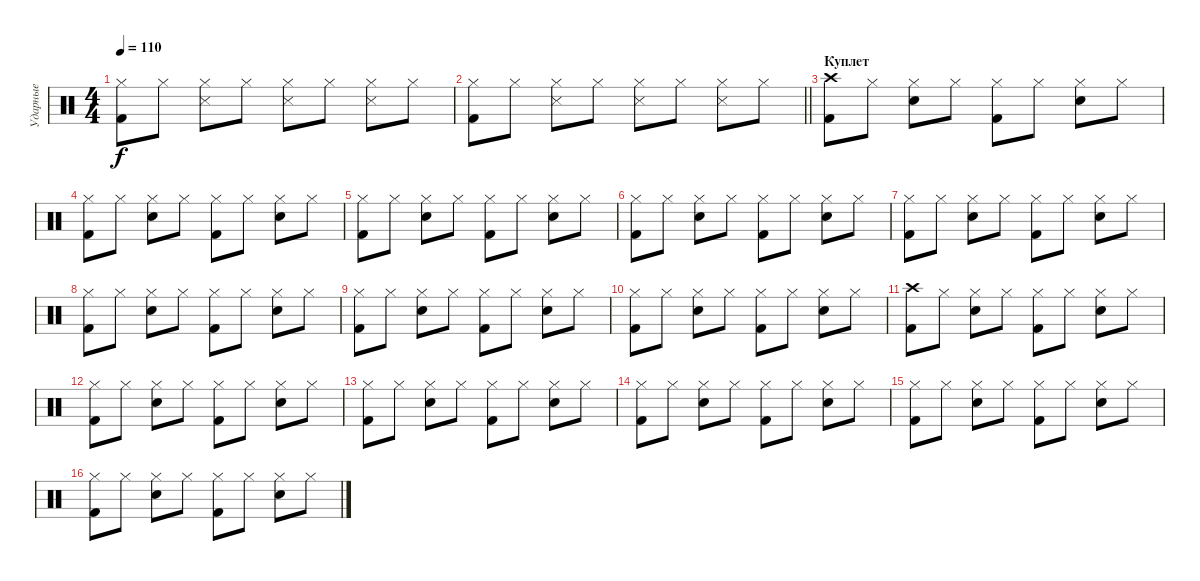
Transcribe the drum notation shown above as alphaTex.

\track ("Ударные" "Ударные") {instrument percussion}
\staff {score}
\articulation defaults
\ts (4 4)
\tempo 110
\clef neutral
\ks c
("Kick (hit) 2" "Hi-Hat (closed)").8{dy f} "Hi-Hat (closed)".8 ("Snare (side stick) 3" "Hi-Hat (closed)").8 "Hi-Hat (closed)".8 ("Snare (side stick) 3" "Hi-Hat (closed)").8 "Hi-Hat (closed)".8 ("Snare (side stick) 3" "Hi-Hat (closed)").8 "Hi-Hat (closed)".8 |
\barLineRight lightlight
("Kick (hit) 2" "Hi-Hat (closed)").8 "Hi-Hat (closed)".8 ("Snare (side stick) 3" "Hi-Hat (closed)").8 "Hi-Hat (closed)".8 ("Snare (side stick) 3" "Hi-Hat (closed)").8 "Hi-Hat (closed)".8 ("Snare (side stick) 3" "Hi-Hat (closed)").8 "Hi-Hat (closed)".8 |
\section ("" "Куплет")
("Kick (hit) 2" "Crash high (hit)").8 "Hi-Hat (closed)".8 ("Snare (hit) 2" "Hi-Hat (closed)").8 "Hi-Hat (closed)".8 ("Kick (hit) 2" "Hi-Hat (closed)").8 "Hi-Hat (closed)".8 ("Snare (hit) 2" "Hi-Hat (closed)").8 "Hi-Hat (closed)".8 |
("Kick (hit) 2" "Hi-Hat (closed)").8 "Hi-Hat (closed)".8 ("Snare (hit) 2" "Hi-Hat (closed)").8 "Hi-Hat (closed)".8 ("Kick (hit) 2" "Hi-Hat (closed)").8 "Hi-Hat (closed)".8 ("Snare (hit) 2" "Hi-Hat (closed)").8 "Hi-Hat (closed)".8 |
("Kick (hit) 2" "Hi-Hat (closed)").8 "Hi-Hat (closed)".8 ("Snare (hit) 2" "Hi-Hat (closed)").8 "Hi-Hat (closed)".8 ("Kick (hit) 2" "Hi-Hat (closed)").8 "Hi-Hat (closed)".8 ("Snare (hit) 2" "Hi-Hat (closed)").8 "Hi-Hat (closed)".8 |
("Kick (hit) 2" "Hi-Hat (closed)").8 "Hi-Hat (closed)".8 ("Snare (hit) 2" "Hi-Hat (closed)").8 "Hi-Hat (closed)".8 ("Kick (hit) 2" "Hi-Hat (closed)").8 "Hi-Hat (closed)".8 ("Snare (hit) 2" "Hi-Hat (closed)").8 "Hi-Hat (closed)".8 |
("Kick (hit) 2" "Hi-Hat (closed)").8 "Hi-Hat (closed)".8 ("Snare (hit) 2" "Hi-Hat (closed)").8 "Hi-Hat (closed)".8 ("Kick (hit) 2" "Hi-Hat (closed)").8 "Hi-Hat (closed)".8 ("Snare (hit) 2" "Hi-Hat (closed)").8 "Hi-Hat (closed)".8 |
("Kick (hit) 2" "Hi-Hat (closed)").8 "Hi-Hat (closed)".8 ("Snare (hit) 2" "Hi-Hat (closed)").8 "Hi-Hat (closed)".8 ("Kick (hit) 2" "Hi-Hat (closed)").8 "Hi-Hat (closed)".8 ("Snare (hit) 2" "Hi-Hat (closed)").8 "Hi-Hat (closed)".8 |
("Kick (hit) 2" "Hi-Hat (closed)").8 "Hi-Hat (closed)".8 ("Snare (hit) 2" "Hi-Hat (closed)").8 "Hi-Hat (closed)".8 ("Kick (hit) 2" "Hi-Hat (closed)").8 "Hi-Hat (closed)".8 ("Snare (hit) 2" "Hi-Hat (closed)").8 "Hi-Hat (closed)".8 |
("Kick (hit) 2" "Hi-Hat (closed)").8 "Hi-Hat (closed)".8 ("Snare (hit) 2" "Hi-Hat (closed)").8 "Hi-Hat (closed)".8 ("Kick (hit) 2" "Hi-Hat (closed)").8 "Hi-Hat (closed)".8 ("Snare (hit) 2" "Hi-Hat (closed)").8 "Hi-Hat (closed)".8 |
("Kick (hit) 2" "Crash high (hit)").8 "Hi-Hat (closed)".8 ("Snare (hit) 2" "Hi-Hat (closed)").8 "Hi-Hat (closed)".8 ("Kick (hit) 2" "Hi-Hat (closed)").8 "Hi-Hat (closed)".8 ("Snare (hit) 2" "Hi-Hat (closed)").8 "Hi-Hat (closed)".8 |
("Kick (hit) 2" "Hi-Hat (closed)").8 "Hi-Hat (closed)".8 ("Snare (hit) 2" "Hi-Hat (closed)").8 "Hi-Hat (closed)".8 ("Kick (hit) 2" "Hi-Hat (closed)").8 "Hi-Hat (closed)".8 ("Snare (hit) 2" "Hi-Hat (closed)").8 "Hi-Hat (closed)".8 |
("Kick (hit) 2" "Hi-Hat (closed)").8 "Hi-Hat (closed)".8 ("Snare (hit) 2" "Hi-Hat (closed)").8 "Hi-Hat (closed)".8 ("Kick (hit) 2" "Hi-Hat (closed)").8 "Hi-Hat (closed)".8 ("Snare (hit) 2" "Hi-Hat (closed)").8 "Hi-Hat (closed)".8 |
("Kick (hit) 2" "Hi-Hat (closed)").8 "Hi-Hat (closed)".8 ("Snare (hit) 2" "Hi-Hat (closed)").8 "Hi-Hat (closed)".8 ("Kick (hit) 2" "Hi-Hat (closed)").8 "Hi-Hat (closed)".8 ("Snare (hit) 2" "Hi-Hat (closed)").8 "Hi-Hat (closed)".8 |
("Kick (hit) 2" "Hi-Hat (closed)").8 "Hi-Hat (closed)".8 ("Snare (hit) 2" "Hi-Hat (closed)").8 "Hi-Hat (closed)".8 ("Kick (hit) 2" "Hi-Hat (closed)").8 "Hi-Hat (closed)".8 ("Snare (hit) 2" "Hi-Hat (closed)").8 "Hi-Hat (closed)".8 |
("Kick (hit) 2" "Hi-Hat (closed)").8 "Hi-Hat (closed)".8 ("Snare (hit) 2" "Hi-Hat (closed)").8 "Hi-Hat (closed)".8 ("Kick (hit) 2" "Hi-Hat (closed)").8 "Hi-Hat (closed)".8 ("Snare (hit) 2" "Hi-Hat (closed)").8 "Hi-Hat (closed)".8
